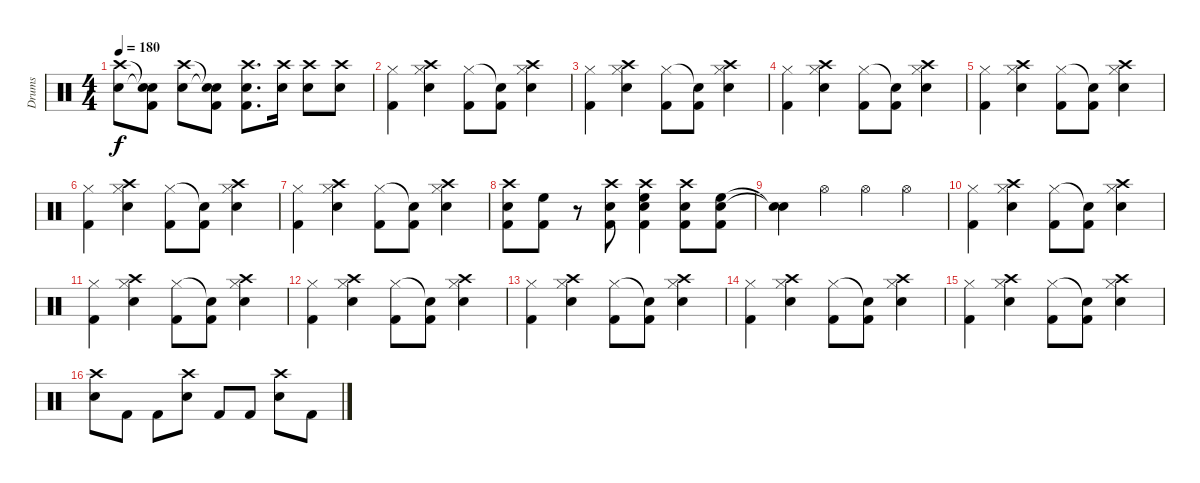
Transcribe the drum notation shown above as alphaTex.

\track ("Drums" "Drums") {instrument percussion}
\staff {score}
\articulation defaults
\ts (4 4)
\tempo 180
\clef neutral
\ks c
("Crash high (hit)" "Snare (hit) 2").8{dy f} ("Snare (hit)"{t} "Snare (hit)"{t} "Kick (hit) 2").8 ("Crash high (hit)" "Snare (hit) 2").8 ("Snare (hit)"{t} "Snare (hit)"{t} "Kick (hit) 2").8 ("Crash high (hit)" "Snare (hit) 2" "Kick (hit) 2").8{d} ("Crash high (hit)" "Snare (hit) 2").16 ("Crash high (hit)" "Snare (hit) 2").8 ("Crash high (hit)" "Snare (hit) 2").8 |
("Hi-Hat (closed)" "Kick (hit) 2").4 ("Crash high (hit)" "Hi-Hat (closed)" "Snare (hit) 2").4 ("Hi-Hat (closed)" "Kick (hit) 2").8 ("Snare (hit)"{t} "Kick (hit) 2").8 ("Crash high (hit)" "Hi-Hat (closed)" "Snare (hit) 2").4 |
("Hi-Hat (closed)" "Kick (hit) 2").4 ("Crash high (hit)" "Hi-Hat (closed)" "Snare (hit) 2").4 ("Hi-Hat (closed)" "Kick (hit) 2").8 ("Snare (hit)"{t} "Kick (hit) 2").8 ("Crash high (hit)" "Hi-Hat (closed)" "Snare (hit) 2").4 |
("Hi-Hat (closed)" "Kick (hit) 2").4 ("Crash high (hit)" "Hi-Hat (closed)" "Snare (hit) 2").4 ("Hi-Hat (closed)" "Kick (hit) 2").8 ("Snare (hit)"{t} "Kick (hit) 2").8 ("Crash high (hit)" "Hi-Hat (closed)" "Snare (hit) 2").4 |
("Hi-Hat (closed)" "Kick (hit) 2").4 ("Crash high (hit)" "Hi-Hat (closed)" "Snare (hit) 2").4 ("Hi-Hat (closed)" "Kick (hit) 2").8 ("Snare (hit)"{t} "Kick (hit) 2").8 ("Crash high (hit)" "Hi-Hat (closed)" "Snare (hit) 2").4 |
("Hi-Hat (closed)" "Kick (hit) 2").4 ("Crash high (hit)" "Hi-Hat (closed)" "Snare (hit) 2").4 ("Hi-Hat (closed)" "Kick (hit) 2").8 ("Snare (hit)"{t} "Kick (hit) 2").8 ("Crash high (hit)" "Hi-Hat (closed)" "Snare (hit) 2").4 |
("Hi-Hat (closed)" "Kick (hit) 2").4 ("Crash high (hit)" "Hi-Hat (closed)" "Snare (hit) 2").4 ("Hi-Hat (closed)" "Kick (hit) 2").8 ("Snare (hit)"{t} "Kick (hit) 2").8 ("Crash high (hit)" "Hi-Hat (closed)" "Snare (hit) 2").4 |
("Crash high (hit)" "Snare (hit) 2" "Kick (hit) 2").8 ("High Floor Tom (hit)" "Kick (hit) 2").8 r.8 ("Crash high (hit)" "Snare (hit) 2" "Kick (hit) 2").8 ("Crash high (hit)" "High Floor Tom (hit)" "Snare (hit) 2" "Kick (hit) 2").4 ("Crash high (hit)" "Snare (hit) 2" "Kick (hit) 2").8 ("High Floor Tom (hit)" "Snare (hit) 2" "Kick (hit) 2").8 |
("Snare (hit)"{t} "Snare (hit)"{t}).4 "Hi-Hat (open)".4 "Hi-Hat (open)".4 "Hi-Hat (open)".4 |
("Hi-Hat (closed)" "Kick (hit) 2").4 ("Crash high (hit)" "Hi-Hat (closed)" "Snare (hit) 2").4 ("Hi-Hat (closed)" "Kick (hit) 2").8 ("Snare (hit)"{t} "Kick (hit) 2").8 ("Crash high (hit)" "Hi-Hat (closed)" "Snare (hit) 2").4 |
("Hi-Hat (closed)" "Kick (hit) 2").4 ("Crash high (hit)" "Hi-Hat (closed)" "Snare (hit) 2").4 ("Hi-Hat (closed)" "Kick (hit) 2").8 ("Snare (hit)"{t} "Kick (hit) 2").8 ("Crash high (hit)" "Hi-Hat (closed)" "Snare (hit) 2").4 |
("Hi-Hat (closed)" "Kick (hit) 2").4 ("Crash high (hit)" "Hi-Hat (closed)" "Snare (hit) 2").4 ("Hi-Hat (closed)" "Kick (hit) 2").8 ("Snare (hit)"{t} "Kick (hit) 2").8 ("Crash high (hit)" "Hi-Hat (closed)" "Snare (hit) 2").4 |
("Hi-Hat (closed)" "Kick (hit) 2").4 ("Crash high (hit)" "Hi-Hat (closed)" "Snare (hit) 2").4 ("Hi-Hat (closed)" "Kick (hit) 2").8 ("Snare (hit)"{t} "Kick (hit) 2").8 ("Crash high (hit)" "Hi-Hat (closed)" "Snare (hit) 2").4 |
("Hi-Hat (closed)" "Kick (hit) 2").4 ("Crash high (hit)" "Hi-Hat (closed)" "Snare (hit) 2").4 ("Hi-Hat (closed)" "Kick (hit) 2").8 ("Snare (hit)"{t} "Kick (hit) 2").8 ("Crash high (hit)" "Hi-Hat (closed)" "Snare (hit) 2").4 |
("Hi-Hat (closed)" "Kick (hit) 2").4 ("Crash high (hit)" "Hi-Hat (closed)" "Snare (hit) 2").4 ("Hi-Hat (closed)" "Kick (hit) 2").8 ("Snare (hit)"{t} "Kick (hit) 2").8 ("Crash high (hit)" "Hi-Hat (closed)" "Snare (hit) 2").4 |
("Crash high (hit)" "Snare (hit) 2").8 "Kick (hit) 2".8 "Kick (hit) 2".8 ("Crash high (hit)" "Snare (hit) 2").8 "Kick (hit) 2".8 "Kick (hit) 2".8 ("Crash high (hit)" "Snare (hit) 2").8 "Kick (hit) 2".8
